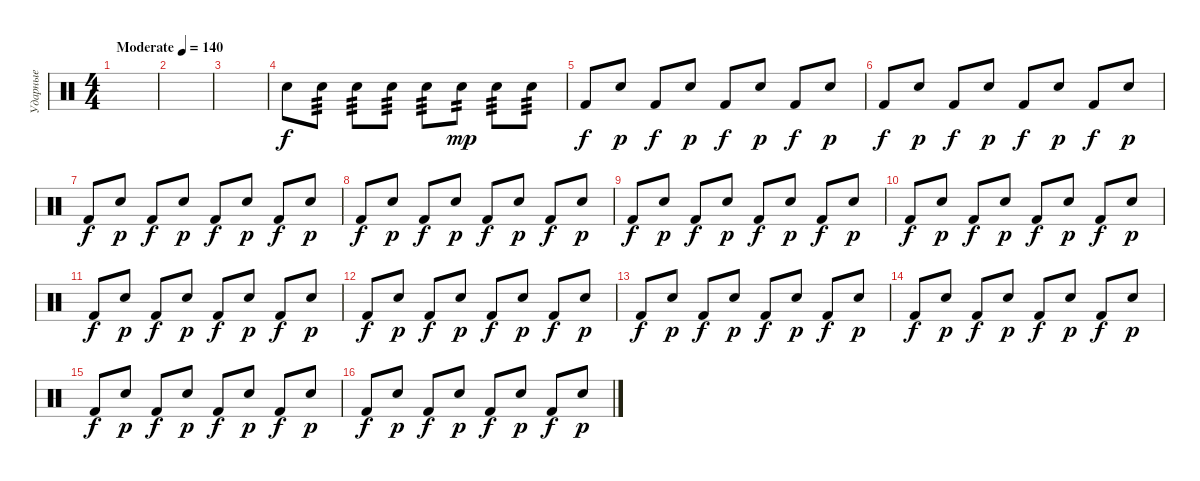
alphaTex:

\track ("Ударные" "Ударные") {instrument percussion}
\staff {score}
\articulation defaults
\ts (4 4)
\tempo (140 "Moderate")
\clef neutral
\ks c
|
|
|
"Snare (hit) 2".8 "Snare (hit) 2".8{tp 3} "Snare (hit) 2".8{tp 3} "Snare (hit) 2".8{tp 3} "Snare (hit) 2".8{tp 3} "Snare (hit) 2".8{tp 2 dy mp} "Snare (hit) 2".8{tp 3} "Snare (hit) 2".8{tp 3} |
"Kick (hit) 2".8{dy f} "Snare (hit) 2".8{dy p} "Kick (hit) 2".8{dy f} "Snare (hit) 2".8{dy p} "Kick (hit) 2".8{dy f} "Snare (hit) 2".8{dy p} "Kick (hit) 2".8{dy f} "Snare (hit) 2".8{dy p} |
"Kick (hit) 2".8{dy f} "Snare (hit) 2".8{dy p} "Kick (hit) 2".8{dy f} "Snare (hit) 2".8{dy p} "Kick (hit) 2".8{dy f} "Snare (hit) 2".8{dy p} "Kick (hit) 2".8{dy f} "Snare (hit) 2".8{dy p} |
"Kick (hit) 2".8{dy f} "Snare (hit) 2".8{dy p} "Kick (hit) 2".8{dy f} "Snare (hit) 2".8{dy p} "Kick (hit) 2".8{dy f} "Snare (hit) 2".8{dy p} "Kick (hit) 2".8{dy f} "Snare (hit) 2".8{dy p} |
"Kick (hit) 2".8{dy f} "Snare (hit) 2".8{dy p} "Kick (hit) 2".8{dy f} "Snare (hit) 2".8{dy p} "Kick (hit) 2".8{dy f} "Snare (hit) 2".8{dy p} "Kick (hit) 2".8{dy f} "Snare (hit) 2".8{dy p} |
"Kick (hit) 2".8{dy f} "Snare (hit) 2".8{dy p} "Kick (hit) 2".8{dy f} "Snare (hit) 2".8{dy p} "Kick (hit) 2".8{dy f} "Snare (hit) 2".8{dy p} "Kick (hit) 2".8{dy f} "Snare (hit) 2".8{dy p} |
"Kick (hit) 2".8{dy f} "Snare (hit) 2".8{dy p} "Kick (hit) 2".8{dy f} "Snare (hit) 2".8{dy p} "Kick (hit) 2".8{dy f} "Snare (hit) 2".8{dy p} "Kick (hit) 2".8{dy f} "Snare (hit) 2".8{dy p} |
"Kick (hit) 2".8{dy f} "Snare (hit) 2".8{dy p} "Kick (hit) 2".8{dy f} "Snare (hit) 2".8{dy p} "Kick (hit) 2".8{dy f} "Snare (hit) 2".8{dy p} "Kick (hit) 2".8{dy f} "Snare (hit) 2".8{dy p} |
"Kick (hit) 2".8{dy f} "Snare (hit) 2".8{dy p} "Kick (hit) 2".8{dy f} "Snare (hit) 2".8{dy p} "Kick (hit) 2".8{dy f} "Snare (hit) 2".8{dy p} "Kick (hit) 2".8{dy f} "Snare (hit) 2".8{dy p} |
"Kick (hit) 2".8{dy f} "Snare (hit) 2".8{dy p} "Kick (hit) 2".8{dy f} "Snare (hit) 2".8{dy p} "Kick (hit) 2".8{dy f} "Snare (hit) 2".8{dy p} "Kick (hit) 2".8{dy f} "Snare (hit) 2".8{dy p} |
"Kick (hit) 2".8{dy f} "Snare (hit) 2".8{dy p} "Kick (hit) 2".8{dy f} "Snare (hit) 2".8{dy p} "Kick (hit) 2".8{dy f} "Snare (hit) 2".8{dy p} "Kick (hit) 2".8{dy f} "Snare (hit) 2".8{dy p} |
"Kick (hit) 2".8{dy f} "Snare (hit) 2".8{dy p} "Kick (hit) 2".8{dy f} "Snare (hit) 2".8{dy p} "Kick (hit) 2".8{dy f} "Snare (hit) 2".8{dy p} "Kick (hit) 2".8{dy f} "Snare (hit) 2".8{dy p} |
"Kick (hit) 2".8{dy f} "Snare (hit) 2".8{dy p} "Kick (hit) 2".8{dy f} "Snare (hit) 2".8{dy p} "Kick (hit) 2".8{dy f} "Snare (hit) 2".8{dy p} "Kick (hit) 2".8{dy f} "Snare (hit) 2".8{dy p}
